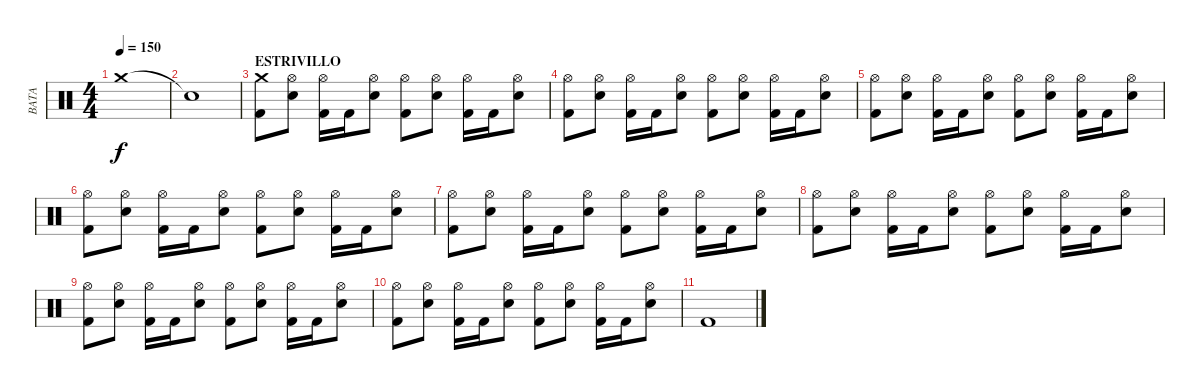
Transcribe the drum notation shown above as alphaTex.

\track ("BATA" "BATA") {instrument percussion}
\staff {score}
\articulation defaults
\ts (4 4)
\tempo 150
\clef neutral
\ks c "Crash medium (hit)".1{dy f}
|
"Snare (hit)"{t}.1 |
\section ("" "ESTRIVILLO")
("Crash medium (hit)" "Kick (hit) 2").8 ("Hi-Hat (open)" "Snare (hit) 2").8 ("Hi-Hat (open)" "Kick (hit) 2").16 "Kick (hit) 2".16 ("Hi-Hat (open)" "Snare (hit) 2").8 ("Hi-Hat (open)" "Kick (hit) 2").8 ("Hi-Hat (open)" "Snare (hit) 2").8 ("Hi-Hat (open)" "Kick (hit) 2").16 "Kick (hit) 2".16 ("Hi-Hat (open)" "Snare (hit) 2").8 |
("Hi-Hat (open)" "Kick (hit) 2").8 ("Hi-Hat (open)" "Snare (hit) 2").8 ("Hi-Hat (open)" "Kick (hit) 2").16 "Kick (hit) 2".16 ("Hi-Hat (open)" "Snare (hit) 2").8 ("Hi-Hat (open)" "Kick (hit) 2").8 ("Hi-Hat (open)" "Snare (hit) 2").8 ("Hi-Hat (open)" "Kick (hit) 2").16 "Kick (hit) 2".16 ("Hi-Hat (open)" "Snare (hit) 2").8 |
("Hi-Hat (open)" "Kick (hit) 2").8 ("Hi-Hat (open)" "Snare (hit) 2").8 ("Hi-Hat (open)" "Kick (hit) 2").16 "Kick (hit) 2".16 ("Hi-Hat (open)" "Snare (hit) 2").8 ("Hi-Hat (open)" "Kick (hit) 2").8 ("Hi-Hat (open)" "Snare (hit) 2").8 ("Hi-Hat (open)" "Kick (hit) 2").16 "Kick (hit) 2".16 ("Hi-Hat (open)" "Snare (hit) 2").8 |
("Hi-Hat (open)" "Kick (hit) 2").8 ("Hi-Hat (open)" "Snare (hit) 2").8 ("Hi-Hat (open)" "Kick (hit) 2").16 "Kick (hit) 2".16 ("Hi-Hat (open)" "Snare (hit) 2").8 ("Hi-Hat (open)" "Kick (hit) 2").8 ("Hi-Hat (open)" "Snare (hit) 2").8 ("Hi-Hat (open)" "Kick (hit) 2").16 "Kick (hit) 2".16 ("Hi-Hat (open)" "Snare (hit) 2").8 |
("Hi-Hat (open)" "Kick (hit) 2").8 ("Hi-Hat (open)" "Snare (hit) 2").8 ("Hi-Hat (open)" "Kick (hit) 2").16 "Kick (hit) 2".16 ("Hi-Hat (open)" "Snare (hit) 2").8 ("Hi-Hat (open)" "Kick (hit) 2").8 ("Hi-Hat (open)" "Snare (hit) 2").8 ("Hi-Hat (open)" "Kick (hit) 2").16 "Kick (hit) 2".16 ("Hi-Hat (open)" "Snare (hit) 2").8 |
("Hi-Hat (open)" "Kick (hit) 2").8 ("Hi-Hat (open)" "Snare (hit) 2").8 ("Hi-Hat (open)" "Kick (hit) 2").16 "Kick (hit) 2".16 ("Hi-Hat (open)" "Snare (hit) 2").8 ("Hi-Hat (open)" "Kick (hit) 2").8 ("Hi-Hat (open)" "Snare (hit) 2").8 ("Hi-Hat (open)" "Kick (hit) 2").16 "Kick (hit) 2".16 ("Hi-Hat (open)" "Snare (hit) 2").8 |
("Hi-Hat (open)" "Kick (hit) 2").8 ("Hi-Hat (open)" "Snare (hit) 2").8 ("Hi-Hat (open)" "Kick (hit) 2").16 "Kick (hit) 2".16 ("Hi-Hat (open)" "Snare (hit) 2").8 ("Hi-Hat (open)" "Kick (hit) 2").8 ("Hi-Hat (open)" "Snare (hit) 2").8 ("Hi-Hat (open)" "Kick (hit) 2").16 "Kick (hit) 2".16 ("Hi-Hat (open)" "Snare (hit) 2").8 |
("Hi-Hat (open)" "Kick (hit) 2").8 ("Hi-Hat (open)" "Snare (hit) 2").8 ("Hi-Hat (open)" "Kick (hit) 2").16 "Kick (hit) 2".16 ("Hi-Hat (open)" "Snare (hit) 2").8 ("Hi-Hat (open)" "Kick (hit) 2").8 ("Hi-Hat (open)" "Snare (hit) 2").8 ("Hi-Hat (open)" "Kick (hit) 2").16 "Kick (hit) 2".16 ("Hi-Hat (open)" "Snare (hit) 2").8 |
"Kick (hit) 2".1
